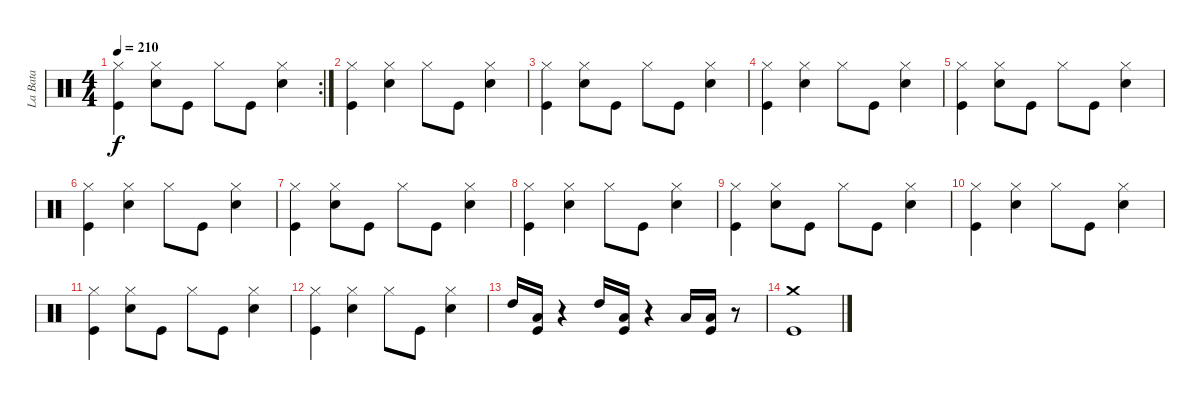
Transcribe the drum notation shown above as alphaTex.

\track ("La Bata" "La Bata") {instrument percussion}
\staff {score}
\articulation defaults
\rc 2
\ts (4 4)
\tempo 210
\clef neutral
\ks c
("Hi-Hat (closed)" "Kick (hit)").4{dy f} ("Snare (hit) 2" "Hi-Hat (closed)").8 "Kick (hit)".8 "Hi-Hat (closed)".8 "Kick (hit)".8 ("Hi-Hat (closed)" "Snare (hit) 2").4 |
("Kick (hit)" "Hi-Hat (closed)").4 ("Snare (hit) 2" "Hi-Hat (closed)").4 "Hi-Hat (closed)".8 "Kick (hit)".8 ("Snare (hit) 2" "Hi-Hat (closed)").4 |
("Hi-Hat (closed)" "Kick (hit)").4 ("Snare (hit) 2" "Hi-Hat (closed)").8 "Kick (hit)".8 "Hi-Hat (closed)".8 "Kick (hit)".8 ("Hi-Hat (closed)" "Snare (hit) 2").4 |
("Kick (hit)" "Hi-Hat (closed)").4 ("Snare (hit) 2" "Hi-Hat (closed)").4 "Hi-Hat (closed)".8 "Kick (hit)".8 ("Snare (hit) 2" "Hi-Hat (closed)").4 |
("Hi-Hat (closed)" "Kick (hit)").4 ("Snare (hit) 2" "Hi-Hat (closed)").8 "Kick (hit)".8 "Hi-Hat (closed)".8 "Kick (hit)".8 ("Hi-Hat (closed)" "Snare (hit) 2").4 |
("Kick (hit)" "Hi-Hat (closed)").4 ("Snare (hit) 2" "Hi-Hat (closed)").4 "Hi-Hat (closed)".8 "Kick (hit)".8 ("Snare (hit) 2" "Hi-Hat (closed)").4 |
("Hi-Hat (closed)" "Kick (hit)").4 ("Snare (hit) 2" "Hi-Hat (closed)").8 "Kick (hit)".8 "Hi-Hat (closed)".8 "Kick (hit)".8 ("Hi-Hat (closed)" "Snare (hit) 2").4 |
("Kick (hit)" "Hi-Hat (closed)").4 ("Snare (hit) 2" "Hi-Hat (closed)").4 "Hi-Hat (closed)".8 "Kick (hit)".8 ("Snare (hit) 2" "Hi-Hat (closed)").4 |
("Hi-Hat (closed)" "Kick (hit)").4 ("Snare (hit) 2" "Hi-Hat (closed)").8 "Kick (hit)".8 "Hi-Hat (closed)".8 "Kick (hit)".8 ("Hi-Hat (closed)" "Snare (hit) 2").4 |
("Kick (hit)" "Hi-Hat (closed)").4 ("Snare (hit) 2" "Hi-Hat (closed)").4 "Hi-Hat (closed)".8 "Kick (hit)".8 ("Snare (hit) 2" "Hi-Hat (closed)").4 |
("Hi-Hat (closed)" "Kick (hit)").4 ("Snare (hit) 2" "Hi-Hat (closed)").8 "Kick (hit)".8 "Hi-Hat (closed)".8 "Kick (hit)".8 ("Hi-Hat (closed)" "Snare (hit) 2").4 |
("Kick (hit)" "Hi-Hat (closed)").4 ("Snare (hit) 2" "Hi-Hat (closed)").4 "Hi-Hat (closed)".8 "Kick (hit)".8 ("Snare (hit) 2" "Hi-Hat (closed)").4 |
"High Tom (hit)".16 ("Low Tom (hit)" "Kick (hit)").16 r.4 "High Tom (hit)".16 ("Low Tom (hit)" "Kick (hit)").16 r.4 "Low Tom (hit)".16 ("Low Tom (hit)" "Kick (hit)").16 r.8 |
("Kick (hit)" "Crash medium (hit)").1
